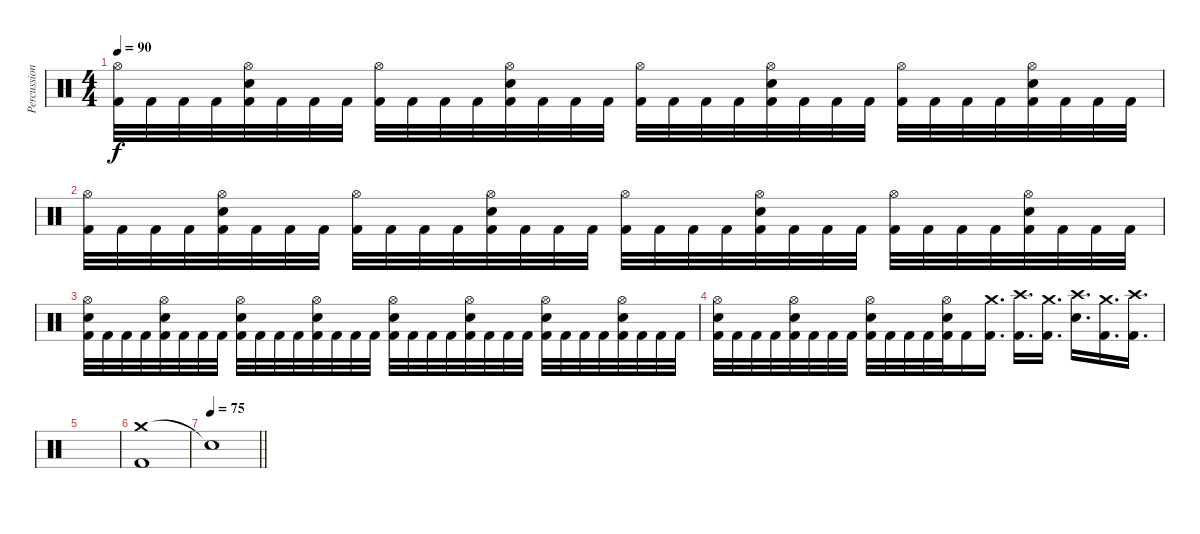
\track ("Percussion" "Percussion") {instrument percussion}
\staff {score}
\articulation defaults
\ts (4 4)
\tempo 90
\clef neutral
\ks c
("Hi-Hat (open)" "Kick (hit) 2").32{dy f} "Kick (hit) 2".32 "Kick (hit) 2".32 "Kick (hit) 2".32 ("Hi-Hat (open)" "Snare (hit) 2" "Kick (hit) 2").32 "Kick (hit) 2".32 "Kick (hit) 2".32 "Kick (hit) 2".32 ("Hi-Hat (open)" "Kick (hit) 2").32 "Kick (hit) 2".32 "Kick (hit) 2".32 "Kick (hit) 2".32 ("Hi-Hat (open)" "Snare (hit) 2" "Kick (hit) 2").32 "Kick (hit) 2".32 "Kick (hit) 2".32 "Kick (hit) 2".32 ("Hi-Hat (open)" "Kick (hit) 2").32 "Kick (hit) 2".32 "Kick (hit) 2".32 "Kick (hit) 2".32 ("Hi-Hat (open)" "Snare (hit) 2" "Kick (hit) 2").32 "Kick (hit) 2".32 "Kick (hit) 2".32 "Kick (hit) 2".32 ("Hi-Hat (open)" "Kick (hit) 2").32 "Kick (hit) 2".32 "Kick (hit) 2".32 "Kick (hit) 2".32 ("Hi-Hat (open)" "Snare (hit) 2" "Kick (hit) 2").32 "Kick (hit) 2".32 "Kick (hit) 2".32 "Kick (hit) 2".32 |
("Hi-Hat (open)" "Kick (hit) 2").32 "Kick (hit) 2".32 "Kick (hit) 2".32 "Kick (hit) 2".32 ("Hi-Hat (open)" "Snare (hit) 2" "Kick (hit) 2").32 "Kick (hit) 2".32 "Kick (hit) 2".32 "Kick (hit) 2".32 ("Hi-Hat (open)" "Kick (hit) 2").32 "Kick (hit) 2".32 "Kick (hit) 2".32 "Kick (hit) 2".32 ("Hi-Hat (open)" "Snare (hit) 2" "Kick (hit) 2").32 "Kick (hit) 2".32 "Kick (hit) 2".32 "Kick (hit) 2".32 ("Hi-Hat (open)" "Kick (hit) 2").32 "Kick (hit) 2".32 "Kick (hit) 2".32 "Kick (hit) 2".32 ("Hi-Hat (open)" "Snare (hit) 2" "Kick (hit) 2").32 "Kick (hit) 2".32 "Kick (hit) 2".32 "Kick (hit) 2".32 ("Hi-Hat (open)" "Kick (hit) 2").32 "Kick (hit) 2".32 "Kick (hit) 2".32 "Kick (hit) 2".32 ("Hi-Hat (open)" "Snare (hit) 2" "Kick (hit) 2").32 "Kick (hit) 2".32 "Kick (hit) 2".32 "Kick (hit) 2".32 |
("Hi-Hat (open)" "Snare (hit) 2" "Kick (hit) 2").32 "Kick (hit) 2".32 "Kick (hit) 2".32 "Kick (hit) 2".32 ("Hi-Hat (open)" "Snare (hit) 2" "Kick (hit) 2").32 "Kick (hit) 2".32 "Kick (hit) 2".32 "Kick (hit) 2".32 ("Hi-Hat (open)" "Snare (hit) 2" "Kick (hit) 2").32 "Kick (hit) 2".32 "Kick (hit) 2".32 "Kick (hit) 2".32 ("Hi-Hat (open)" "Snare (hit) 2" "Kick (hit) 2").32 "Kick (hit) 2".32 "Kick (hit) 2".32 "Kick (hit) 2".32 ("Hi-Hat (open)" "Snare (hit) 2" "Kick (hit) 2").32 "Kick (hit) 2".32 "Kick (hit) 2".32 "Kick (hit) 2".32 ("Hi-Hat (open)" "Snare (hit) 2" "Kick (hit) 2").32 "Kick (hit) 2".32 "Kick (hit) 2".32 "Kick (hit) 2".32 ("Hi-Hat (open)" "Snare (hit) 2" "Kick (hit) 2").32 "Kick (hit) 2".32 "Kick (hit) 2".32 "Kick (hit) 2".32 ("Hi-Hat (open)" "Snare (hit) 2" "Kick (hit) 2").32 "Kick (hit) 2".32 "Kick (hit) 2".32 "Kick (hit) 2".32 |
("Hi-Hat (open)" "Snare (hit) 2" "Kick (hit) 2").32 "Kick (hit) 2".32 "Kick (hit) 2".32 "Kick (hit) 2".32 ("Hi-Hat (open)" "Snare (hit) 2" "Kick (hit) 2").32 "Kick (hit) 2".32 "Kick (hit) 2".32 "Kick (hit) 2".32 ("Hi-Hat (open)" "Snare (hit) 2" "Kick (hit) 2").32 "Kick (hit) 2".32 "Kick (hit) 2".32 "Kick (hit) 2".32 ("Hi-Hat (open)" "Snare (hit) 2" "Kick (hit) 2").32 "Kick (hit) 2".16 ("Crash medium (hit)" "Kick (hit) 2").16{d} ("Crash high (hit)" "Kick (hit) 2").16{d} ("Crash medium (hit)" "Kick (hit) 2").16{d} ("Crash high (hit)" "Snare (hit) 2").16{d} ("Crash medium (hit)" "Kick (hit) 2").16{d} ("Crash high (hit)" "Kick (hit) 2").16{d} |
|
("Crash medium (hit)" "Kick (hit) 2").1 |
\tempo 75
\barLineRight lightlight "Snare (hit)"{t}.1
